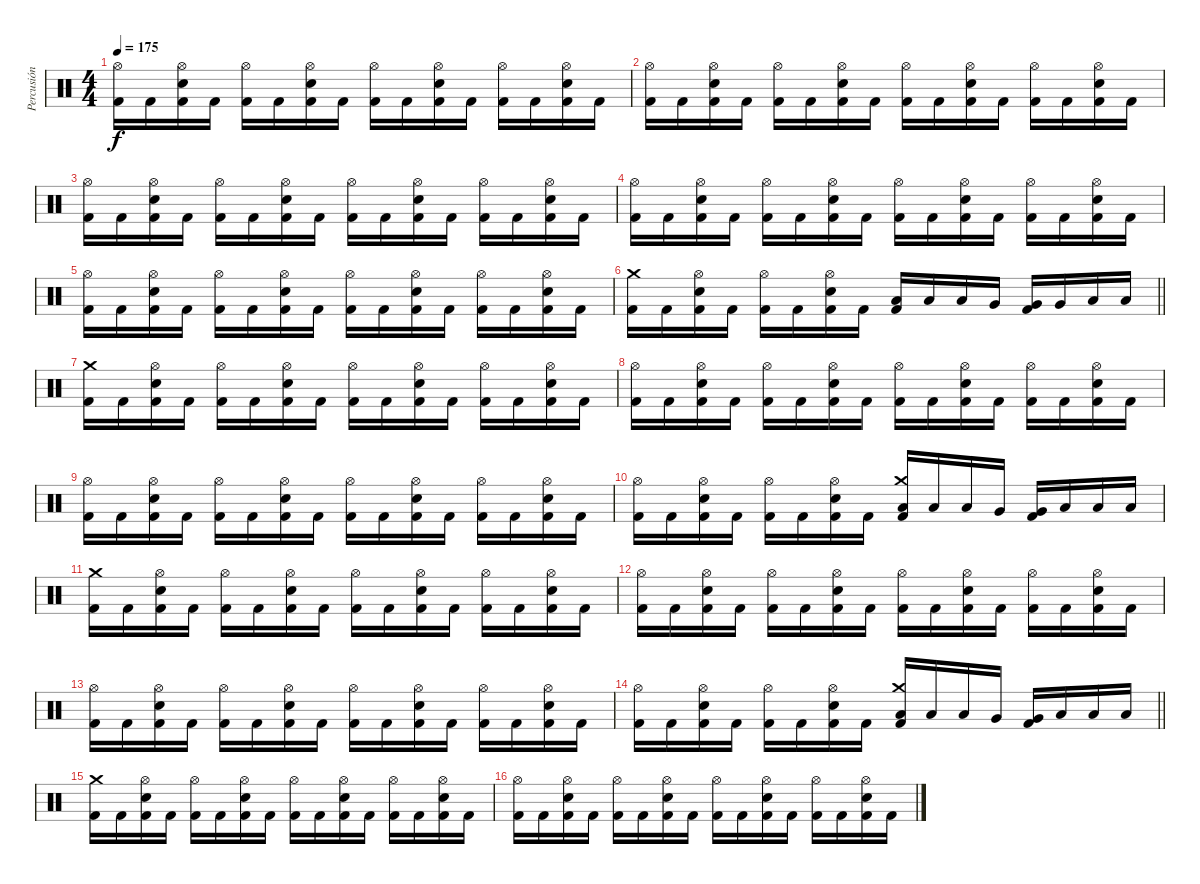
\track ("Percusión" "Percusión") {instrument percussion}
\staff {score}
\articulation defaults
\ts (4 4)
\tempo 175
\clef neutral
\ks c
("Hi-Hat (open)" "Kick (hit) 2").16{dy f} "Kick (hit) 2".16 ("Hi-Hat (open)" "Electric Snare (hit)" "Kick (hit) 2").16 "Kick (hit) 2".16 ("Hi-Hat (open)" "Kick (hit) 2").16 "Kick (hit) 2".16 ("Hi-Hat (open)" "Electric Snare (hit)" "Kick (hit) 2").16 "Kick (hit) 2".16 ("Hi-Hat (open)" "Kick (hit) 2").16 "Kick (hit) 2".16 ("Hi-Hat (open)" "Electric Snare (hit)" "Kick (hit) 2").16 "Kick (hit) 2".16 ("Hi-Hat (open)" "Kick (hit) 2").16 "Kick (hit) 2".16 ("Hi-Hat (open)" "Electric Snare (hit)" "Kick (hit) 2").16 "Kick (hit) 2".16 |
("Hi-Hat (open)" "Kick (hit) 2").16 "Kick (hit) 2".16 ("Hi-Hat (open)" "Electric Snare (hit)" "Kick (hit) 2").16 "Kick (hit) 2".16 ("Hi-Hat (open)" "Kick (hit) 2").16 "Kick (hit) 2".16 ("Hi-Hat (open)" "Electric Snare (hit)" "Kick (hit) 2").16 "Kick (hit) 2".16 ("Hi-Hat (open)" "Kick (hit) 2").16 "Kick (hit) 2".16 ("Hi-Hat (open)" "Electric Snare (hit)" "Kick (hit) 2").16 "Kick (hit) 2".16 ("Hi-Hat (open)" "Kick (hit) 2").16 "Kick (hit) 2".16 ("Hi-Hat (open)" "Electric Snare (hit)" "Kick (hit) 2").16 "Kick (hit) 2".16 |
("Hi-Hat (open)" "Kick (hit) 2").16 "Kick (hit) 2".16 ("Hi-Hat (open)" "Electric Snare (hit)" "Kick (hit) 2").16 "Kick (hit) 2".16 ("Hi-Hat (open)" "Kick (hit) 2").16 "Kick (hit) 2".16 ("Hi-Hat (open)" "Electric Snare (hit)" "Kick (hit) 2").16 "Kick (hit) 2".16 ("Hi-Hat (open)" "Kick (hit) 2").16 "Kick (hit) 2".16 ("Hi-Hat (open)" "Electric Snare (hit)" "Kick (hit) 2").16 "Kick (hit) 2".16 ("Hi-Hat (open)" "Kick (hit) 2").16 "Kick (hit) 2".16 ("Hi-Hat (open)" "Electric Snare (hit)" "Kick (hit) 2").16 "Kick (hit) 2".16 |
("Hi-Hat (open)" "Kick (hit) 2").16 "Kick (hit) 2".16 ("Hi-Hat (open)" "Electric Snare (hit)" "Kick (hit) 2").16 "Kick (hit) 2".16 ("Hi-Hat (open)" "Kick (hit) 2").16 "Kick (hit) 2".16 ("Hi-Hat (open)" "Electric Snare (hit)" "Kick (hit) 2").16 "Kick (hit) 2".16 ("Hi-Hat (open)" "Kick (hit) 2").16 "Kick (hit) 2".16 ("Hi-Hat (open)" "Electric Snare (hit)" "Kick (hit) 2").16 "Kick (hit) 2".16 ("Hi-Hat (open)" "Kick (hit) 2").16 "Kick (hit) 2".16 ("Hi-Hat (open)" "Electric Snare (hit)" "Kick (hit) 2").16 "Kick (hit) 2".16 |
("Hi-Hat (open)" "Kick (hit) 2").16 "Kick (hit) 2".16 ("Hi-Hat (open)" "Electric Snare (hit)" "Kick (hit) 2").16 "Kick (hit) 2".16 ("Hi-Hat (open)" "Kick (hit) 2").16 "Kick (hit) 2".16 ("Hi-Hat (open)" "Electric Snare (hit)" "Kick (hit) 2").16 "Kick (hit) 2".16 ("Hi-Hat (open)" "Kick (hit) 2").16 "Kick (hit) 2".16 ("Hi-Hat (open)" "Electric Snare (hit)" "Kick (hit) 2").16 "Kick (hit) 2".16 ("Hi-Hat (open)" "Kick (hit) 2").16 "Kick (hit) 2".16 ("Hi-Hat (open)" "Electric Snare (hit)" "Kick (hit) 2").16 "Kick (hit) 2".16 |
\barLineRight lightlight
("Crash medium (hit)" "Kick (hit) 2").16 "Kick (hit) 2".16 ("Hi-Hat (open)" "Electric Snare (hit)" "Kick (hit) 2").16 "Kick (hit) 2".16 ("Hi-Hat (open)" "Kick (hit) 2").16 "Kick (hit) 2".16 ("Hi-Hat (open)" "Electric Snare (hit)" "Kick (hit) 2").16 "Kick (hit) 2".16 ("Low Tom (hit)" "Kick (hit) 2").16 "Low Tom (hit)".16 "Low Tom (hit)".16 "Very Low Tom (hit)".16 ("Very Low Tom (hit)" "Kick (hit) 2").16 "Very Low Tom (hit)".16 "Low Floor Tom (hit)".16 "Low Floor Tom (hit)".16 |
("Crash medium (hit)" "Kick (hit) 2").16 "Kick (hit) 2".16 ("Hi-Hat (open)" "Electric Snare (hit)" "Kick (hit) 2").16 "Kick (hit) 2".16 ("Hi-Hat (open)" "Kick (hit) 2").16 "Kick (hit) 2".16 ("Hi-Hat (open)" "Electric Snare (hit)" "Kick (hit) 2").16 "Kick (hit) 2".16 ("Hi-Hat (open)" "Kick (hit) 2").16 "Kick (hit) 2".16 ("Hi-Hat (open)" "Electric Snare (hit)" "Kick (hit) 2").16 "Kick (hit) 2".16 ("Hi-Hat (open)" "Kick (hit) 2").16 "Kick (hit) 2".16 ("Hi-Hat (open)" "Electric Snare (hit)" "Kick (hit) 2").16 "Kick (hit) 2".16 |
("Hi-Hat (open)" "Kick (hit) 2").16 "Kick (hit) 2".16 ("Hi-Hat (open)" "Electric Snare (hit)" "Kick (hit) 2").16 "Kick (hit) 2".16 ("Hi-Hat (open)" "Kick (hit) 2").16 "Kick (hit) 2".16 ("Hi-Hat (open)" "Electric Snare (hit)" "Kick (hit) 2").16 "Kick (hit) 2".16 ("Hi-Hat (open)" "Kick (hit) 2").16 "Kick (hit) 2".16 ("Hi-Hat (open)" "Electric Snare (hit)" "Kick (hit) 2").16 "Kick (hit) 2".16 ("Hi-Hat (open)" "Kick (hit) 2").16 "Kick (hit) 2".16 ("Hi-Hat (open)" "Electric Snare (hit)" "Kick (hit) 2").16 "Kick (hit) 2".16 |
("Hi-Hat (open)" "Kick (hit) 2").16 "Kick (hit) 2".16 ("Hi-Hat (open)" "Electric Snare (hit)" "Kick (hit) 2").16 "Kick (hit) 2".16 ("Hi-Hat (open)" "Kick (hit) 2").16 "Kick (hit) 2".16 ("Hi-Hat (open)" "Electric Snare (hit)" "Kick (hit) 2").16 "Kick (hit) 2".16 ("Hi-Hat (open)" "Kick (hit) 2").16 "Kick (hit) 2".16 ("Hi-Hat (open)" "Electric Snare (hit)" "Kick (hit) 2").16 "Kick (hit) 2".16 ("Hi-Hat (open)" "Kick (hit) 2").16 "Kick (hit) 2".16 ("Hi-Hat (open)" "Electric Snare (hit)" "Kick (hit) 2").16 "Kick (hit) 2".16 |
("Hi-Hat (open)" "Kick (hit) 2").16 "Kick (hit) 2".16 ("Hi-Hat (open)" "Electric Snare (hit)" "Kick (hit) 2").16 "Kick (hit) 2".16 ("Hi-Hat (open)" "Kick (hit) 2").16 "Kick (hit) 2".16 ("Hi-Hat (open)" "Electric Snare (hit)" "Kick (hit) 2").16 "Kick (hit) 2".16 ("Crash medium (hit)" "Low Tom (hit)" "Kick (hit) 2").16 "Low Tom (hit)".16 "Low Tom (hit)".16 "Very Low Tom (hit)".16 ("Very Low Tom (hit)" "Kick (hit) 2").16 "Low Floor Tom (hit)".16 "Low Floor Tom (hit)".16 "Low Floor Tom (hit)".16 |
("Crash medium (hit)" "Kick (hit) 2").16 "Kick (hit) 2".16 ("Hi-Hat (open)" "Electric Snare (hit)" "Kick (hit) 2").16 "Kick (hit) 2".16 ("Hi-Hat (open)" "Kick (hit) 2").16 "Kick (hit) 2".16 ("Hi-Hat (open)" "Electric Snare (hit)" "Kick (hit) 2").16 "Kick (hit) 2".16 ("Hi-Hat (open)" "Kick (hit) 2").16 "Kick (hit) 2".16 ("Hi-Hat (open)" "Electric Snare (hit)" "Kick (hit) 2").16 "Kick (hit) 2".16 ("Hi-Hat (open)" "Kick (hit) 2").16 "Kick (hit) 2".16 ("Hi-Hat (open)" "Electric Snare (hit)" "Kick (hit) 2").16 "Kick (hit) 2".16 |
("Hi-Hat (open)" "Kick (hit) 2").16 "Kick (hit) 2".16 ("Hi-Hat (open)" "Electric Snare (hit)" "Kick (hit) 2").16 "Kick (hit) 2".16 ("Hi-Hat (open)" "Kick (hit) 2").16 "Kick (hit) 2".16 ("Hi-Hat (open)" "Electric Snare (hit)" "Kick (hit) 2").16 "Kick (hit) 2".16 ("Hi-Hat (open)" "Kick (hit) 2").16 "Kick (hit) 2".16 ("Hi-Hat (open)" "Electric Snare (hit)" "Kick (hit) 2").16 "Kick (hit) 2".16 ("Hi-Hat (open)" "Kick (hit) 2").16 "Kick (hit) 2".16 ("Hi-Hat (open)" "Electric Snare (hit)" "Kick (hit) 2").16 "Kick (hit) 2".16 |
("Hi-Hat (open)" "Kick (hit) 2").16 "Kick (hit) 2".16 ("Hi-Hat (open)" "Electric Snare (hit)" "Kick (hit) 2").16 "Kick (hit) 2".16 ("Hi-Hat (open)" "Kick (hit) 2").16 "Kick (hit) 2".16 ("Hi-Hat (open)" "Electric Snare (hit)" "Kick (hit) 2").16 "Kick (hit) 2".16 ("Hi-Hat (open)" "Kick (hit) 2").16 "Kick (hit) 2".16 ("Hi-Hat (open)" "Electric Snare (hit)" "Kick (hit) 2").16 "Kick (hit) 2".16 ("Hi-Hat (open)" "Kick (hit) 2").16 "Kick (hit) 2".16 ("Hi-Hat (open)" "Electric Snare (hit)" "Kick (hit) 2").16 "Kick (hit) 2".16 |
\barLineRight lightlight
("Hi-Hat (open)" "Kick (hit) 2").16 "Kick (hit) 2".16 ("Hi-Hat (open)" "Electric Snare (hit)" "Kick (hit) 2").16 "Kick (hit) 2".16 ("Hi-Hat (open)" "Kick (hit) 2").16 "Kick (hit) 2".16 ("Hi-Hat (open)" "Electric Snare (hit)" "Kick (hit) 2").16 "Kick (hit) 2".16 ("Crash medium (hit)" "Low Tom (hit)" "Kick (hit) 2").16 "Low Tom (hit)".16 "Low Tom (hit)".16 "Very Low Tom (hit)".16 ("Very Low Tom (hit)" "Kick (hit) 2").16 "Low Floor Tom (hit)".16 "Low Floor Tom (hit)".16 "Low Floor Tom (hit)".16 |
("Crash medium (hit)" "Kick (hit) 2").16 "Kick (hit) 2".16 ("Hi-Hat (open)" "Electric Snare (hit)" "Kick (hit) 2").16 "Kick (hit) 2".16 ("Hi-Hat (open)" "Kick (hit) 2").16 "Kick (hit) 2".16 ("Hi-Hat (open)" "Electric Snare (hit)" "Kick (hit) 2").16 "Kick (hit) 2".16 ("Hi-Hat (open)" "Kick (hit) 2").16 "Kick (hit) 2".16 ("Hi-Hat (open)" "Electric Snare (hit)" "Kick (hit) 2").16 "Kick (hit) 2".16 ("Hi-Hat (open)" "Kick (hit) 2").16 "Kick (hit) 2".16 ("Hi-Hat (open)" "Electric Snare (hit)" "Kick (hit) 2").16 "Kick (hit) 2".16 |
("Hi-Hat (open)" "Kick (hit) 2").16 "Kick (hit) 2".16 ("Hi-Hat (open)" "Electric Snare (hit)" "Kick (hit) 2").16 "Kick (hit) 2".16 ("Hi-Hat (open)" "Kick (hit) 2").16 "Kick (hit) 2".16 ("Hi-Hat (open)" "Electric Snare (hit)" "Kick (hit) 2").16 "Kick (hit) 2".16 ("Hi-Hat (open)" "Kick (hit) 2").16 "Kick (hit) 2".16 ("Hi-Hat (open)" "Electric Snare (hit)" "Kick (hit) 2").16 "Kick (hit) 2".16 ("Hi-Hat (open)" "Kick (hit) 2").16 "Kick (hit) 2".16 ("Hi-Hat (open)" "Electric Snare (hit)" "Kick (hit) 2").16 "Kick (hit) 2".16
